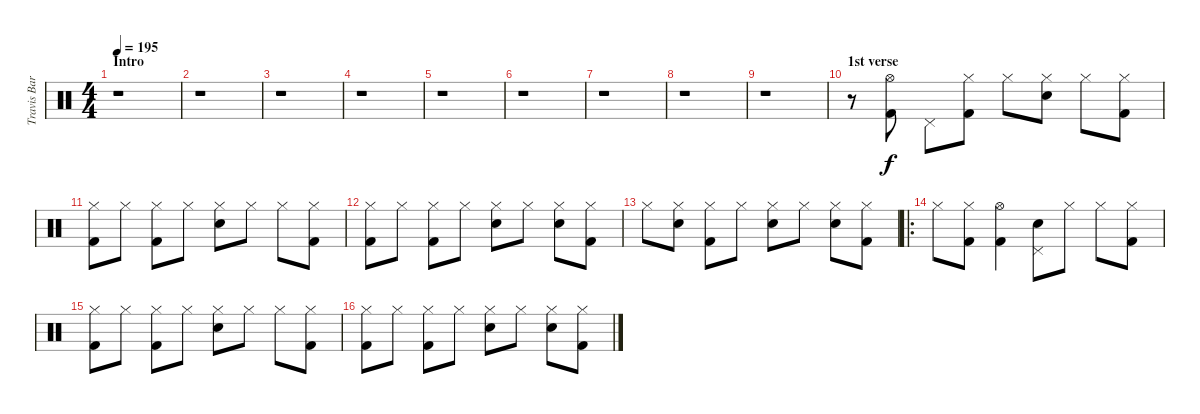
\track ("Travis Barker (Schlagzeug)" "Travis Bar") {instrument percussion}
\staff {score}
\articulation defaults
\ts (4 4)
\section ("" "Intro")
\tempo 195
\clef neutral
\ks c
r.1{dy f} |
r.1 |
r.1 |
r.1 |
r.1 |
r.1 |
r.1 |
r.1 |
r.1 |
\section ("" "1st verse")
r.8 ("Hi-Hat (open)" "Kick (hit) 2").8 "Pedal Hi-Hat (hit)".8 ("Hi-Hat (closed)" "Kick (hit) 2").8 "Hi-Hat (closed)".8 ("Hi-Hat (closed)" "Electric Snare (hit)").8 "Hi-Hat (closed)".8 ("Hi-Hat (closed)" "Kick (hit) 2").8 |
("Hi-Hat (closed)" "Kick (hit) 2").8 "Hi-Hat (closed)".8 ("Hi-Hat (closed)" "Kick (hit) 2").8 "Hi-Hat (closed)".8 ("Hi-Hat (closed)" "Electric Snare (hit)").8 "Hi-Hat (closed)".8 "Hi-Hat (closed)".8 ("Hi-Hat (closed)" "Kick (hit) 2").8 |
("Hi-Hat (closed)" "Kick (hit) 2").8 "Hi-Hat (closed)".8 ("Hi-Hat (closed)" "Kick (hit) 2").8 "Hi-Hat (closed)".8 ("Hi-Hat (closed)" "Electric Snare (hit)").8 "Hi-Hat (closed)".8 ("Hi-Hat (closed)" "Electric Snare (hit)").8 ("Hi-Hat (closed)" "Kick (hit) 2").8 |
"Hi-Hat (closed)".8 ("Hi-Hat (closed)" "Electric Snare (hit)").8 ("Hi-Hat (closed)" "Kick (hit) 2").8 "Hi-Hat (closed)".8 ("Hi-Hat (closed)" "Electric Snare (hit)").8 "Hi-Hat (closed)".8 ("Hi-Hat (closed)" "Electric Snare (hit)").8 ("Hi-Hat (closed)" "Kick (hit) 2").8 |
\ro "Hi-Hat (closed)".8
("Hi-Hat (closed)" "Kick (hit) 2").8 ("Hi-Hat (open)" "Kick (hit) 2").4 ("Pedal Hi-Hat (hit)" "Electric Snare (hit)").8 "Hi-Hat (closed)".8 "Hi-Hat (closed)".8 ("Hi-Hat (closed)" "Kick (hit) 2").8 |
("Hi-Hat (closed)" "Kick (hit) 2").8 "Hi-Hat (closed)".8 ("Hi-Hat (closed)" "Kick (hit) 2").8 "Hi-Hat (closed)".8 ("Hi-Hat (closed)" "Electric Snare (hit)").8 "Hi-Hat (closed)".8 "Hi-Hat (closed)".8 ("Hi-Hat (closed)" "Kick (hit) 2").8 |
("Hi-Hat (closed)" "Kick (hit) 2").8 "Hi-Hat (closed)".8 ("Hi-Hat (closed)" "Kick (hit) 2").8 "Hi-Hat (closed)".8 ("Hi-Hat (closed)" "Electric Snare (hit)").8 "Hi-Hat (closed)".8 ("Hi-Hat (closed)" "Electric Snare (hit)").8 ("Hi-Hat (closed)" "Kick (hit) 2").8
